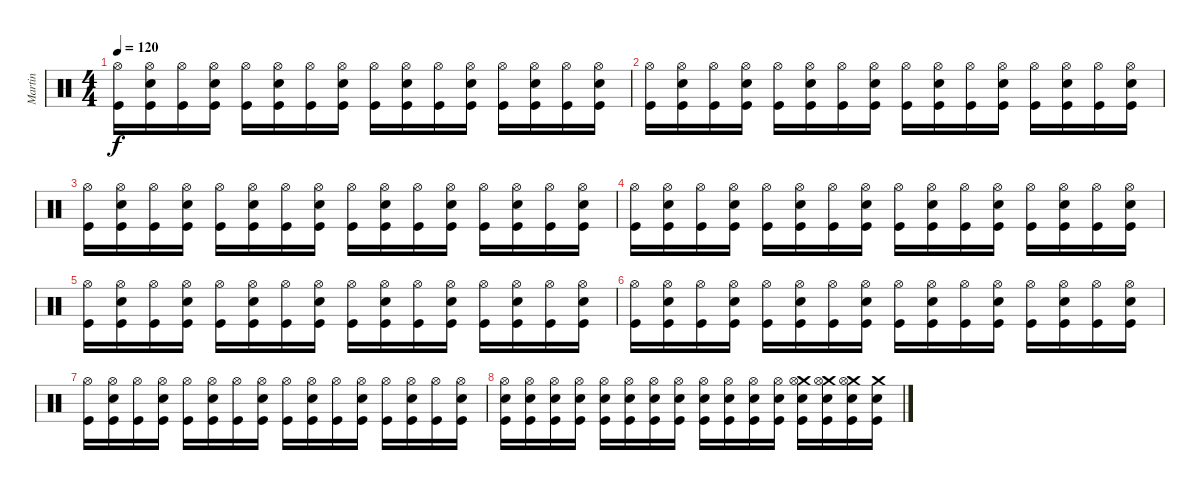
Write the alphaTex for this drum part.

\track ("Martin" "Martin") {instrument percussion}
\staff {score}
\articulation defaults
\ts (4 4)
\tempo 120
\clef neutral
\ks c
("Hi-Hat (open)" "Kick (hit)").16{dy f} ("Hi-Hat (open)" "Snare (hit) 2" "Kick (hit)").16 ("Hi-Hat (open)" "Kick (hit)").16 ("Hi-Hat (open)" "Snare (hit) 2" "Kick (hit)").16 ("Hi-Hat (open)" "Kick (hit)").16 ("Hi-Hat (open)" "Snare (hit) 2" "Kick (hit)").16 ("Hi-Hat (open)" "Kick (hit)").16 ("Hi-Hat (open)" "Snare (hit) 2" "Kick (hit)").16 ("Hi-Hat (open)" "Kick (hit)").16 ("Hi-Hat (open)" "Snare (hit) 2" "Kick (hit)").16 ("Hi-Hat (open)" "Kick (hit)").16 ("Hi-Hat (open)" "Snare (hit) 2" "Kick (hit)").16 ("Hi-Hat (open)" "Kick (hit)").16 ("Hi-Hat (open)" "Snare (hit) 2" "Kick (hit)").16 ("Hi-Hat (open)" "Kick (hit)").16 ("Hi-Hat (open)" "Snare (hit) 2" "Kick (hit)").16 |
("Hi-Hat (open)" "Kick (hit)").16 ("Hi-Hat (open)" "Snare (hit) 2" "Kick (hit)").16 ("Hi-Hat (open)" "Kick (hit)").16 ("Hi-Hat (open)" "Snare (hit) 2" "Kick (hit)").16 ("Hi-Hat (open)" "Kick (hit)").16 ("Hi-Hat (open)" "Snare (hit) 2" "Kick (hit)").16 ("Hi-Hat (open)" "Kick (hit)").16 ("Hi-Hat (open)" "Snare (hit) 2" "Kick (hit)").16 ("Hi-Hat (open)" "Kick (hit)").16 ("Hi-Hat (open)" "Snare (hit) 2" "Kick (hit)").16 ("Hi-Hat (open)" "Kick (hit)").16 ("Hi-Hat (open)" "Snare (hit) 2" "Kick (hit)").16 ("Hi-Hat (open)" "Kick (hit)").16 ("Hi-Hat (open)" "Snare (hit) 2" "Kick (hit)").16 ("Hi-Hat (open)" "Kick (hit)").16 ("Hi-Hat (open)" "Snare (hit) 2" "Kick (hit)").16 |
("Hi-Hat (open)" "Kick (hit)").16 ("Hi-Hat (open)" "Snare (hit) 2" "Kick (hit)").16 ("Hi-Hat (open)" "Kick (hit)").16 ("Hi-Hat (open)" "Snare (hit) 2" "Kick (hit)").16 ("Hi-Hat (open)" "Kick (hit)").16 ("Hi-Hat (open)" "Snare (hit) 2" "Kick (hit)").16 ("Hi-Hat (open)" "Kick (hit)").16 ("Hi-Hat (open)" "Snare (hit) 2" "Kick (hit)").16 ("Hi-Hat (open)" "Kick (hit)").16 ("Hi-Hat (open)" "Snare (hit) 2" "Kick (hit)").16 ("Hi-Hat (open)" "Kick (hit)").16 ("Hi-Hat (open)" "Snare (hit) 2" "Kick (hit)").16 ("Hi-Hat (open)" "Kick (hit)").16 ("Hi-Hat (open)" "Snare (hit) 2" "Kick (hit)").16 ("Hi-Hat (open)" "Kick (hit)").16 ("Hi-Hat (open)" "Snare (hit) 2" "Kick (hit)").16 |
("Hi-Hat (open)" "Kick (hit)").16 ("Hi-Hat (open)" "Snare (hit) 2" "Kick (hit)").16 ("Hi-Hat (open)" "Kick (hit)").16 ("Hi-Hat (open)" "Snare (hit) 2" "Kick (hit)").16 ("Hi-Hat (open)" "Kick (hit)").16 ("Hi-Hat (open)" "Snare (hit) 2" "Kick (hit)").16 ("Hi-Hat (open)" "Kick (hit)").16 ("Hi-Hat (open)" "Snare (hit) 2" "Kick (hit)").16 ("Hi-Hat (open)" "Kick (hit)").16 ("Hi-Hat (open)" "Snare (hit) 2" "Kick (hit)").16 ("Hi-Hat (open)" "Kick (hit)").16 ("Hi-Hat (open)" "Snare (hit) 2" "Kick (hit)").16 ("Hi-Hat (open)" "Kick (hit)").16 ("Hi-Hat (open)" "Snare (hit) 2" "Kick (hit)").16 ("Hi-Hat (open)" "Kick (hit)").16 ("Hi-Hat (open)" "Snare (hit) 2" "Kick (hit)").16 |
("Hi-Hat (open)" "Kick (hit)").16 ("Hi-Hat (open)" "Snare (hit) 2" "Kick (hit)").16 ("Hi-Hat (open)" "Kick (hit)").16 ("Hi-Hat (open)" "Snare (hit) 2" "Kick (hit)").16 ("Hi-Hat (open)" "Kick (hit)").16 ("Hi-Hat (open)" "Snare (hit) 2" "Kick (hit)").16 ("Hi-Hat (open)" "Kick (hit)").16 ("Hi-Hat (open)" "Snare (hit) 2" "Kick (hit)").16 ("Hi-Hat (open)" "Kick (hit)").16 ("Hi-Hat (open)" "Snare (hit) 2" "Kick (hit)").16 ("Hi-Hat (open)" "Kick (hit)").16 ("Hi-Hat (open)" "Snare (hit) 2" "Kick (hit)").16 ("Hi-Hat (open)" "Kick (hit)").16 ("Hi-Hat (open)" "Snare (hit) 2" "Kick (hit)").16 ("Hi-Hat (open)" "Kick (hit)").16 ("Hi-Hat (open)" "Snare (hit) 2" "Kick (hit)").16 |
("Hi-Hat (open)" "Kick (hit)").16 ("Hi-Hat (open)" "Snare (hit) 2" "Kick (hit)").16 ("Hi-Hat (open)" "Kick (hit)").16 ("Hi-Hat (open)" "Snare (hit) 2" "Kick (hit)").16 ("Hi-Hat (open)" "Kick (hit)").16 ("Hi-Hat (open)" "Snare (hit) 2" "Kick (hit)").16 ("Hi-Hat (open)" "Kick (hit)").16 ("Hi-Hat (open)" "Snare (hit) 2" "Kick (hit)").16 ("Hi-Hat (open)" "Kick (hit)").16 ("Hi-Hat (open)" "Snare (hit) 2" "Kick (hit)").16 ("Hi-Hat (open)" "Kick (hit)").16 ("Hi-Hat (open)" "Snare (hit) 2" "Kick (hit)").16 ("Hi-Hat (open)" "Kick (hit)").16 ("Hi-Hat (open)" "Snare (hit) 2" "Kick (hit)").16 ("Hi-Hat (open)" "Kick (hit)").16 ("Hi-Hat (open)" "Snare (hit) 2" "Kick (hit)").16 |
("Hi-Hat (open)" "Kick (hit)").16 ("Hi-Hat (open)" "Snare (hit) 2" "Kick (hit)").16 ("Hi-Hat (open)" "Kick (hit)").16 ("Hi-Hat (open)" "Snare (hit) 2" "Kick (hit)").16 ("Hi-Hat (open)" "Kick (hit)").16 ("Hi-Hat (open)" "Snare (hit) 2" "Kick (hit)").16 ("Hi-Hat (open)" "Kick (hit)").16 ("Hi-Hat (open)" "Snare (hit) 2" "Kick (hit)").16 ("Hi-Hat (open)" "Kick (hit)").16 ("Hi-Hat (open)" "Snare (hit) 2" "Kick (hit)").16 ("Hi-Hat (open)" "Kick (hit)").16 ("Hi-Hat (open)" "Snare (hit) 2" "Kick (hit)").16 ("Hi-Hat (open)" "Kick (hit)").16 ("Hi-Hat (open)" "Snare (hit) 2" "Kick (hit)").16 ("Hi-Hat (open)" "Kick (hit)").16 ("Hi-Hat (open)" "Snare (hit) 2" "Kick (hit)").16 |
("Hi-Hat (open)" "Snare (hit) 2" "Kick (hit)").16 ("Hi-Hat (open)" "Snare (hit) 2" "Kick (hit)").16 ("Hi-Hat (open)" "Snare (hit) 2" "Kick (hit)").16 ("Hi-Hat (open)" "Snare (hit) 2" "Kick (hit)").16 ("Hi-Hat (open)" "Snare (hit) 2" "Kick (hit)").16 ("Hi-Hat (open)" "Snare (hit) 2" "Kick (hit)").16 ("Hi-Hat (open)" "Snare (hit) 2" "Kick (hit)").16 ("Hi-Hat (open)" "Snare (hit) 2" "Kick (hit)").16 ("Hi-Hat (open)" "Snare (hit) 2" "Kick (hit)").16 ("Hi-Hat (open)" "Snare (hit) 2" "Kick (hit)").16 ("Hi-Hat (open)" "Snare (hit) 2" "Kick (hit)").16 ("Hi-Hat (open)" "Snare (hit) 2" "Kick (hit)").16 ("Crash medium (hit)" "Hi-Hat (open)" "Snare (hit) 2" "Kick (hit)").16 ("Crash medium (hit)" "Hi-Hat (open)" "Snare (hit) 2" "Kick (hit)").16 ("Crash medium (hit)" "Hi-Hat (open)" "Snare (hit) 2" "Kick (hit)").16 ("Crash medium (hit)" "Snare (hit) 2" "Kick (hit)").16
